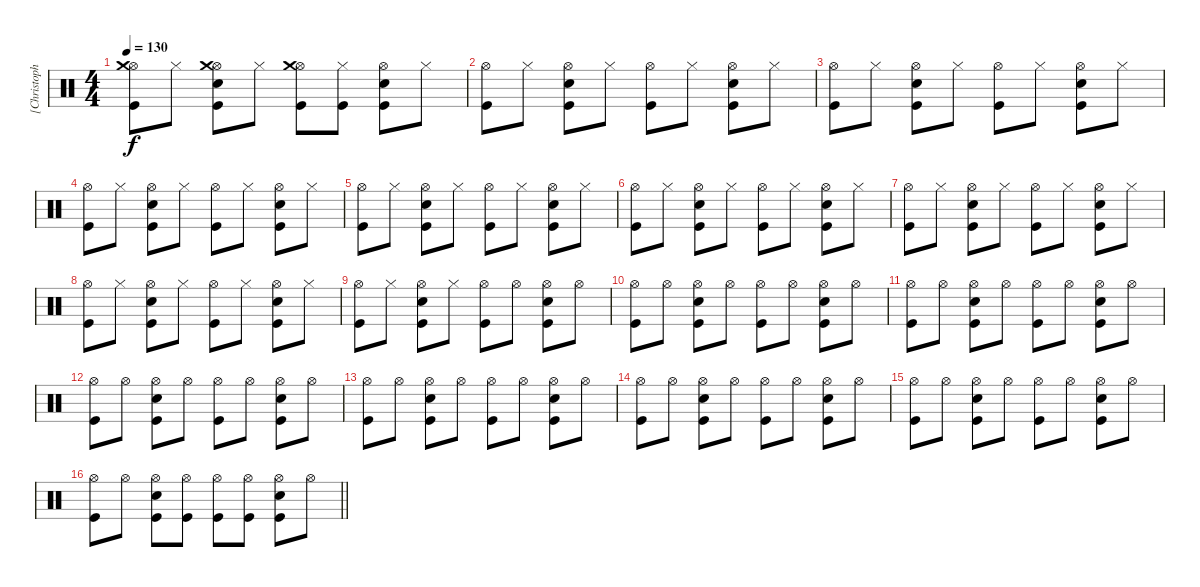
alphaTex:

\track ("[Christoph Schneider]  Drums" "[Christoph") {instrument percussion}
\staff {score}
\articulation defaults
\ts (4 4)
\tempo 130
\clef neutral
\ks c
("Hi-Hat (open)" "Crash medium (hit)" "Kick (hit)").8{dy f} "Hi-Hat (closed)".8 ("Hi-Hat (open)" "Snare (hit) 2" "Crash medium (hit)" "Kick (hit)").8 "Hi-Hat (closed)".8 ("Hi-Hat (open)" "Crash medium (hit)" "Kick (hit)").8 ("Hi-Hat (closed)" "Kick (hit)").8 ("Hi-Hat (open)" "Snare (hit) 2" "Kick (hit)").8 "Hi-Hat (closed)".8 |
("Hi-Hat (open)" "Kick (hit)").8 "Hi-Hat (closed)".8 ("Hi-Hat (open)" "Snare (hit) 2" "Kick (hit)").8 "Hi-Hat (closed)".8 ("Hi-Hat (open)" "Kick (hit)").8 "Hi-Hat (closed)".8 ("Hi-Hat (open)" "Snare (hit) 2" "Kick (hit)").8 "Hi-Hat (closed)".8 |
("Hi-Hat (open)" "Kick (hit)").8 "Hi-Hat (closed)".8 ("Hi-Hat (open)" "Snare (hit) 2" "Kick (hit)").8 "Hi-Hat (closed)".8 ("Hi-Hat (open)" "Kick (hit)").8 "Hi-Hat (closed)".8 ("Hi-Hat (open)" "Snare (hit) 2" "Kick (hit)").8 "Hi-Hat (closed)".8 |
("Hi-Hat (open)" "Kick (hit)").8 "Hi-Hat (closed)".8 ("Hi-Hat (open)" "Snare (hit) 2" "Kick (hit)").8 "Hi-Hat (closed)".8 ("Hi-Hat (open)" "Kick (hit)").8 "Hi-Hat (closed)".8 ("Hi-Hat (open)" "Snare (hit) 2" "Kick (hit)").8 "Hi-Hat (closed)".8 |
("Hi-Hat (open)" "Kick (hit)").8 "Hi-Hat (closed)".8 ("Hi-Hat (open)" "Snare (hit) 2" "Kick (hit)").8 "Hi-Hat (closed)".8 ("Hi-Hat (open)" "Kick (hit)").8 "Hi-Hat (closed)".8 ("Hi-Hat (open)" "Snare (hit) 2" "Kick (hit)").8 "Hi-Hat (closed)".8 |
("Hi-Hat (open)" "Kick (hit)").8 "Hi-Hat (closed)".8 ("Hi-Hat (open)" "Snare (hit) 2" "Kick (hit)").8 "Hi-Hat (closed)".8 ("Hi-Hat (open)" "Kick (hit)").8 "Hi-Hat (closed)".8 ("Hi-Hat (open)" "Snare (hit) 2" "Kick (hit)").8 "Hi-Hat (closed)".8 |
("Hi-Hat (open)" "Kick (hit)").8 "Hi-Hat (closed)".8 ("Hi-Hat (open)" "Snare (hit) 2" "Kick (hit)").8 "Hi-Hat (closed)".8 ("Hi-Hat (open)" "Kick (hit)").8 "Hi-Hat (closed)".8 ("Hi-Hat (open)" "Snare (hit) 2" "Kick (hit)").8 "Hi-Hat (closed)".8 |
("Hi-Hat (open)" "Kick (hit)").8 "Hi-Hat (closed)".8 ("Hi-Hat (open)" "Snare (hit) 2" "Kick (hit)").8 "Hi-Hat (closed)".8 ("Hi-Hat (open)" "Kick (hit)").8 "Hi-Hat (closed)".8 ("Hi-Hat (open)" "Snare (hit) 2" "Kick (hit)").8 "Hi-Hat (closed)".8 |
("Hi-Hat (open)" "Kick (hit)").8 "Hi-Hat (closed)".8 ("Hi-Hat (open)" "Snare (hit) 2" "Kick (hit)").8 "Hi-Hat (closed)".8 ("Hi-Hat (open)" "Kick (hit)").8 "Hi-Hat (open)".8 ("Hi-Hat (open)" "Snare (hit) 2" "Kick (hit)").8 "Hi-Hat (open)".8 |
("Hi-Hat (open)" "Kick (hit)").8 "Hi-Hat (open)".8 ("Hi-Hat (open)" "Snare (hit) 2" "Kick (hit)").8 "Hi-Hat (open)".8 ("Hi-Hat (open)" "Kick (hit)").8 "Hi-Hat (open)".8 ("Hi-Hat (open)" "Snare (hit) 2" "Kick (hit)").8 "Hi-Hat (open)".8 |
("Hi-Hat (open)" "Kick (hit)").8 "Hi-Hat (open)".8 ("Hi-Hat (open)" "Snare (hit) 2" "Kick (hit)").8 "Hi-Hat (open)".8 ("Hi-Hat (open)" "Kick (hit)").8 "Hi-Hat (open)".8 ("Hi-Hat (open)" "Snare (hit) 2" "Kick (hit)").8 "Hi-Hat (open)".8 |
("Hi-Hat (open)" "Kick (hit)").8 "Hi-Hat (open)".8 ("Hi-Hat (open)" "Snare (hit) 2" "Kick (hit)").8 "Hi-Hat (open)".8 ("Hi-Hat (open)" "Kick (hit)").8 "Hi-Hat (open)".8 ("Hi-Hat (open)" "Snare (hit) 2" "Kick (hit)").8 "Hi-Hat (open)".8 |
("Hi-Hat (open)" "Kick (hit)").8 "Hi-Hat (open)".8 ("Hi-Hat (open)" "Snare (hit) 2" "Kick (hit)").8 "Hi-Hat (open)".8 ("Hi-Hat (open)" "Kick (hit)").8 "Hi-Hat (open)".8 ("Hi-Hat (open)" "Snare (hit) 2" "Kick (hit)").8 "Hi-Hat (open)".8 |
("Hi-Hat (open)" "Kick (hit)").8 "Hi-Hat (open)".8 ("Hi-Hat (open)" "Snare (hit) 2" "Kick (hit)").8 "Hi-Hat (open)".8 ("Hi-Hat (open)" "Kick (hit)").8 "Hi-Hat (open)".8 ("Hi-Hat (open)" "Snare (hit) 2" "Kick (hit)").8 "Hi-Hat (open)".8 |
("Hi-Hat (open)" "Kick (hit)").8 "Hi-Hat (open)".8 ("Hi-Hat (open)" "Snare (hit) 2" "Kick (hit)").8 "Hi-Hat (open)".8 ("Hi-Hat (open)" "Kick (hit)").8 "Hi-Hat (open)".8 ("Hi-Hat (open)" "Snare (hit) 2" "Kick (hit)").8 "Hi-Hat (open)".8 |
\barLineRight lightlight
("Hi-Hat (open)" "Kick (hit)").8 "Hi-Hat (open)".8 ("Hi-Hat (open)" "Snare (hit) 2" "Kick (hit)").8 ("Hi-Hat (open)" "Kick (hit)").8 ("Hi-Hat (open)" "Kick (hit)").8 ("Hi-Hat (open)" "Kick (hit)").8 ("Hi-Hat (open)" "Snare (hit) 2" "Kick (hit)").8 "Hi-Hat (open)".8
